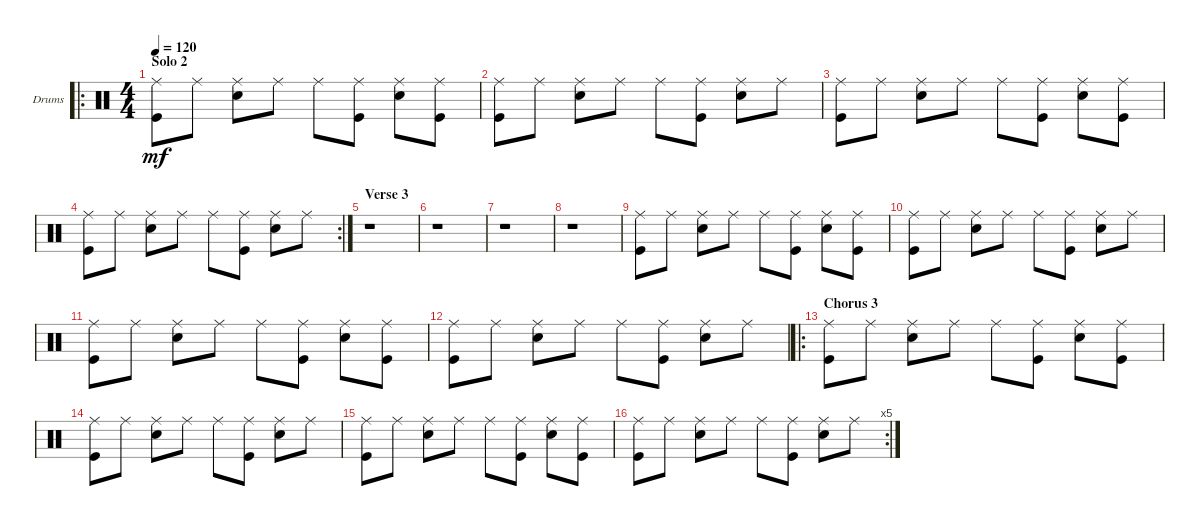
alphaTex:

\defaultSystemsLayout 4
\bracketExtendMode groupsimilarinstruments
\firstSystemTrackNameOrientation horizontal
\otherSystemsTrackNameOrientation horizontal
\track ("Drumkit" "Drums") {instrument percussion}
\staff {score}
\articulation defaults
\ro
\ts (4 4)
\section ("" "Solo 2")
\tempo 120
\clef neutral
\ks c
("Ride (middle)" "Kick (hit)").8{dy mf} "Ride (middle)".8 ("Ride (middle)" "Snare (hit) 2").8 "Ride (middle)".8 "Ride (middle)".8 ("Ride (middle)" "Kick (hit)").8 ("Ride (middle)" "Snare (hit) 2").8 ("Ride (middle)" "Kick (hit)").8 |
("Ride (middle)" "Kick (hit)").8 "Ride (middle)".8 ("Ride (middle)" "Snare (hit) 2").8 "Ride (middle)".8 "Ride (middle)".8 ("Ride (middle)" "Kick (hit)").8 ("Ride (middle)" "Snare (hit) 2").8 "Ride (middle)".8 |
("Ride (middle)" "Kick (hit)").8 "Ride (middle)".8 ("Ride (middle)" "Snare (hit) 2").8 "Ride (middle)".8 "Ride (middle)".8 ("Ride (middle)" "Kick (hit)").8 ("Ride (middle)" "Snare (hit) 2").8 ("Ride (middle)" "Kick (hit)").8 |
\rc 2
("Ride (middle)" "Kick (hit)").8 "Ride (middle)".8 ("Ride (middle)" "Snare (hit) 2").8 "Ride (middle)".8 "Ride (middle)".8 ("Ride (middle)" "Kick (hit)").8 ("Ride (middle)" "Snare (hit) 2").8 "Ride (middle)".8 |
\section ("" "Verse 3")
r.1 |
r.1 |
r.1 |
r.1 |
("Ride (middle)" "Kick (hit)").8 "Ride (middle)".8 ("Ride (middle)" "Snare (hit) 2").8 "Ride (middle)".8 "Ride (middle)".8 ("Ride (middle)" "Kick (hit)").8 ("Ride (middle)" "Snare (hit) 2").8 ("Ride (middle)" "Kick (hit)").8 |
("Ride (middle)" "Kick (hit)").8 "Ride (middle)".8 ("Ride (middle)" "Snare (hit) 2").8 "Ride (middle)".8 "Ride (middle)".8 ("Ride (middle)" "Kick (hit)").8 ("Ride (middle)" "Snare (hit) 2").8 "Ride (middle)".8 |
("Ride (middle)" "Kick (hit)").8 "Ride (middle)".8 ("Ride (middle)" "Snare (hit) 2").8 "Ride (middle)".8 "Ride (middle)".8 ("Ride (middle)" "Kick (hit)").8 ("Ride (middle)" "Snare (hit) 2").8 ("Ride (middle)" "Kick (hit)").8 |
("Ride (middle)" "Kick (hit)").8 "Ride (middle)".8 ("Ride (middle)" "Snare (hit) 2").8 "Ride (middle)".8 "Ride (middle)".8 ("Ride (middle)" "Kick (hit)").8 ("Ride (middle)" "Snare (hit) 2").8 "Ride (middle)".8 |
\ro
\section ("" "Chorus 3")
("Ride (middle)" "Kick (hit)").8 "Ride (middle)".8 ("Ride (middle)" "Snare (hit) 2").8 "Ride (middle)".8 "Ride (middle)".8 ("Ride (middle)" "Kick (hit)").8 ("Ride (middle)" "Snare (hit) 2").8 ("Ride (middle)" "Kick (hit)").8 |
("Ride (middle)" "Kick (hit)").8 "Ride (middle)".8 ("Ride (middle)" "Snare (hit) 2").8 "Ride (middle)".8 "Ride (middle)".8 ("Ride (middle)" "Kick (hit)").8 ("Ride (middle)" "Snare (hit) 2").8 "Ride (middle)".8 |
("Ride (middle)" "Kick (hit)").8 "Ride (middle)".8 ("Ride (middle)" "Snare (hit) 2").8 "Ride (middle)".8 "Ride (middle)".8 ("Ride (middle)" "Kick (hit)").8 ("Ride (middle)" "Snare (hit) 2").8 ("Ride (middle)" "Kick (hit)").8 |
\rc 5
("Ride (middle)" "Kick (hit)").8 "Ride (middle)".8 ("Ride (middle)" "Snare (hit) 2").8 "Ride (middle)".8 "Ride (middle)".8 ("Ride (middle)" "Kick (hit)").8 ("Ride (middle)" "Snare (hit) 2").8 "Ride (middle)".8
